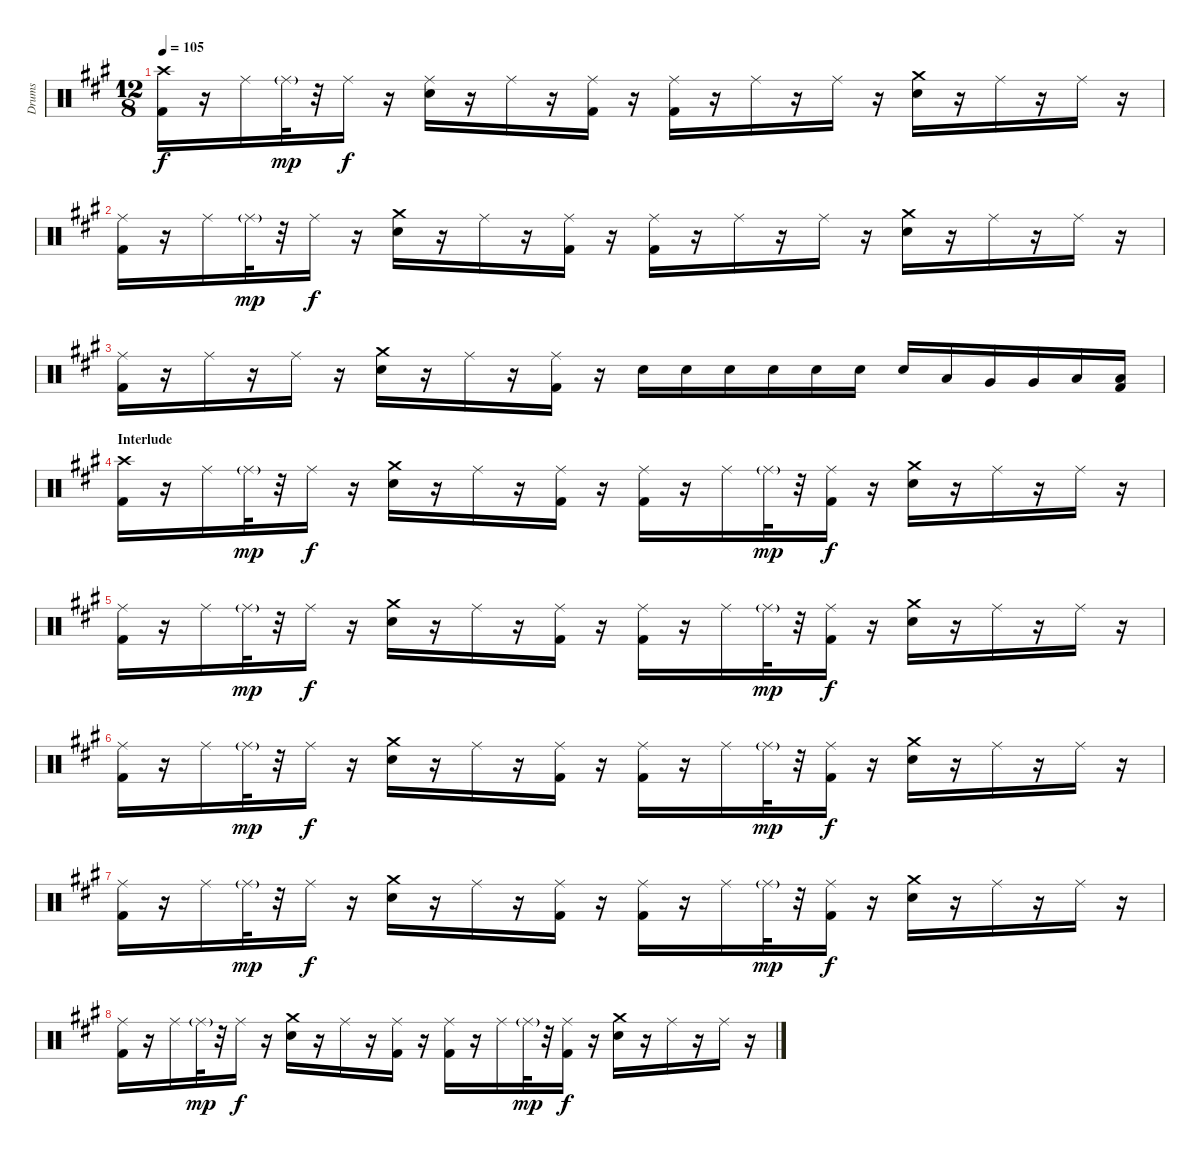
\track ("Drums" "Drums") {instrument percussion}
\staff {score}
\articulation defaults
\ts (12 8)
\tempo 105
\clef neutral
\ks a
("Crash high (hit)" "Kick (hit) 2").16{dy f} r.16 "Ride (middle)".16 "Ride (middle)"{g}.32{dy mp} r.32 "Ride (middle)".16{dy f} r.16 ("Ride (middle)" "Snare (hit) 2").16 r.16 "Ride (middle)".16 r.16 ("Ride (middle)" "Kick (hit) 2").16 r.16 ("Ride (middle)" "Kick (hit) 2").16 r.16 "Ride (middle)".16 r.16 "Ride (middle)".16 r.16 ("Crash medium (hit)" "Snare (hit) 2").16 r.16 "Ride (middle)".16 r.16 "Ride (middle)".16 r.16 |
("Ride (middle)" "Kick (hit) 2").16 r.16 "Ride (middle)".16 "Ride (middle)"{g}.32{dy mp} r.32 "Ride (middle)".16{dy f} r.16 ("Crash medium (hit)" "Snare (hit) 2").16 r.16 "Ride (middle)".16 r.16 ("Ride (middle)" "Kick (hit) 2").16 r.16 ("Ride (middle)" "Kick (hit) 2").16 r.16 "Ride (middle)".16 r.16 "Ride (middle)".16 r.16 ("Crash medium (hit)" "Snare (hit) 2").16 r.16 "Ride (middle)".16 r.16 "Ride (middle)".16 r.16 |
("Ride (middle)" "Kick (hit) 2").16 r.16 "Ride (middle)".16 r.16 "Ride (middle)".16 r.16 ("Crash medium (hit)" "Snare (hit) 2").16 r.16 "Ride (middle)".16 r.16 ("Ride (middle)" "Kick (hit) 2").16 r.16 "Electric Snare (hit)".16 "Electric Snare (hit)".16 "Electric Snare (hit)".16 "Electric Snare (hit)".16 "Electric Snare (hit)".16 "Electric Snare (hit)".16 "Electric Snare (hit)".16 "Low Tom (hit)".16 "Very Low Tom (hit)".16 "Very Low Tom (hit)".16 "Low Floor Tom (hit)".16 ("Low Floor Tom (hit)" "Kick (hit) 2").16 |
\section ("" "Interlude")
("Crash high (hit)" "Kick (hit) 2").16 r.16 "Ride (middle)".16 "Ride (middle)"{g}.32{dy mp} r.32 "Ride (middle)".16{dy f} r.16 ("Crash medium (hit)" "Snare (hit) 2").16 r.16 "Ride (middle)".16 r.16 ("Ride (middle)" "Kick (hit) 2").16 r.16 ("Ride (middle)" "Kick (hit) 2").16 r.16 "Ride (middle)".16 "Ride (middle)"{g}.32{dy mp} r.32 ("Ride (middle)" "Kick (hit) 2").16{dy f} r.16 ("Crash medium (hit)" "Snare (hit) 2").16 r.16 "Ride (middle)".16 r.16 "Ride (middle)".16 r.16 |
("Ride (middle)" "Kick (hit) 2").16 r.16 "Ride (middle)".16 "Ride (middle)"{g}.32{dy mp} r.32 "Ride (middle)".16{dy f} r.16 ("Crash medium (hit)" "Snare (hit) 2").16 r.16 "Ride (middle)".16 r.16 ("Ride (middle)" "Kick (hit) 2").16 r.16 ("Ride (middle)" "Kick (hit) 2").16 r.16 "Ride (middle)".16 "Ride (middle)"{g}.32{dy mp} r.32 ("Ride (middle)" "Kick (hit) 2").16{dy f} r.16 ("Crash medium (hit)" "Snare (hit) 2").16 r.16 "Ride (middle)".16 r.16 "Ride (middle)".16 r.16 |
("Ride (middle)" "Kick (hit) 2").16 r.16 "Ride (middle)".16 "Ride (middle)"{g}.32{dy mp} r.32 "Ride (middle)".16{dy f} r.16 ("Crash medium (hit)" "Snare (hit) 2").16 r.16 "Ride (middle)".16 r.16 ("Ride (middle)" "Kick (hit) 2").16 r.16 ("Ride (middle)" "Kick (hit) 2").16 r.16 "Ride (middle)".16 "Ride (middle)"{g}.32{dy mp} r.32 ("Ride (middle)" "Kick (hit) 2").16{dy f} r.16 ("Crash medium (hit)" "Snare (hit) 2").16 r.16 "Ride (middle)".16 r.16 "Ride (middle)".16 r.16 |
("Ride (middle)" "Kick (hit) 2").16 r.16 "Ride (middle)".16 "Ride (middle)"{g}.32{dy mp} r.32 "Ride (middle)".16{dy f} r.16 ("Crash medium (hit)" "Snare (hit) 2").16 r.16 "Ride (middle)".16 r.16 ("Ride (middle)" "Kick (hit) 2").16 r.16 ("Ride (middle)" "Kick (hit) 2").16 r.16 "Ride (middle)".16 "Ride (middle)"{g}.32{dy mp} r.32 ("Ride (middle)" "Kick (hit) 2").16{dy f} r.16 ("Crash medium (hit)" "Snare (hit) 2").16 r.16 "Ride (middle)".16 r.16 "Ride (middle)".16 r.16 |
("Ride (middle)" "Kick (hit) 2").16 r.16 "Ride (middle)".16 "Ride (middle)"{g}.32{dy mp} r.32 "Ride (middle)".16{dy f} r.16 ("Crash medium (hit)" "Snare (hit) 2").16 r.16 "Ride (middle)".16 r.16 ("Ride (middle)" "Kick (hit) 2").16 r.16 ("Ride (middle)" "Kick (hit) 2").16 r.16 "Ride (middle)".16 "Ride (middle)"{g}.32{dy mp} r.32 ("Ride (middle)" "Kick (hit) 2").16{dy f} r.16 ("Crash medium (hit)" "Snare (hit) 2").16 r.16 "Ride (middle)".16 r.16 "Ride (middle)".16 r.16
